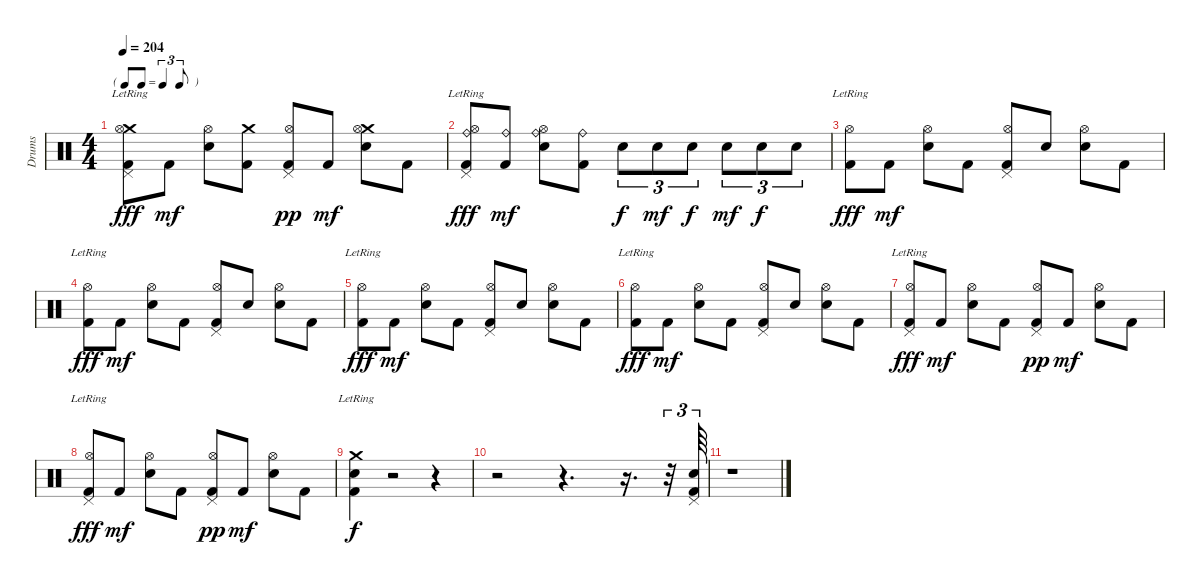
\track ("Drums" "Drums") {instrument percussion}
\staff {score}
\articulation defaults
\ts (4 4)
\tf triplet8th
\tempo 204
\clef neutral
\ks c
("Crash medium (hit)" "Pedal Hi-Hat (hit)" "Hi-Hat (open)" "Kick (hit) 2"{lr}).8{dy fff} "Kick (hit) 2".8{dy mf} ("Hi-Hat (open)" "Electric Snare (hit)").8 ("Crash medium (hit)" "Kick (hit) 2").8 ("Pedal Hi-Hat (hit)" "Hi-Hat (open)" "Kick (hit) 2").8{dy pp} "Kick (hit) 2".8{dy mf} ("Crash medium (hit)" "Hi-Hat (open)" "Electric Snare (hit)").8 "Kick (hit) 2".8 |
("Ride (bell)" "Pedal Hi-Hat (hit)" "Hi-Hat (open)" "Kick (hit) 2"{lr}).8{dy fff} ("Ride (bell)" "Kick (hit) 2").8{dy mf} ("Ride (bell)" "Hi-Hat (open)" "Electric Snare (hit)").8 ("Ride (bell)" "Kick (hit) 2").8 "Electric Snare (hit)".8{tu (3 2) dy f} "Electric Snare (hit)".8{tu (3 2) dy mf} "Electric Snare (hit)".8{tu (3 2) dy f} "Electric Snare (hit)".8{tu (3 2) dy mf} "Electric Snare (hit)".8{tu (3 2) dy f} "Electric Snare (hit)".8{tu (3 2)} |
("Hi-Hat (open)" "Kick (hit) 2"{lr}).8{dy fff} "Kick (hit) 2".8{dy mf} ("Hi-Hat (open)" "Electric Snare (hit)").8 "Kick (hit) 2".8 ("Pedal Hi-Hat (hit)" "Hi-Hat (open)" "Kick (hit) 2").8 "Electric Snare (hit)".8 ("Hi-Hat (open)" "Electric Snare (hit)").8 "Kick (hit) 2".8 |
("Hi-Hat (open)" "Kick (hit) 2"{lr}).8{dy fff} "Kick (hit) 2".8{dy mf} ("Hi-Hat (open)" "Electric Snare (hit)").8 "Kick (hit) 2".8 ("Pedal Hi-Hat (hit)" "Hi-Hat (open)" "Kick (hit) 2").8 "Electric Snare (hit)".8 ("Hi-Hat (open)" "Electric Snare (hit)").8 "Kick (hit) 2".8 |
("Hi-Hat (open)" "Kick (hit) 2"{lr}).8{dy fff} "Kick (hit) 2".8{dy mf} ("Hi-Hat (open)" "Electric Snare (hit)").8 "Kick (hit) 2".8 ("Pedal Hi-Hat (hit)" "Hi-Hat (open)" "Kick (hit) 2").8 "Electric Snare (hit)".8 ("Hi-Hat (open)" "Electric Snare (hit)").8 "Kick (hit) 2".8 |
("Hi-Hat (open)" "Kick (hit) 2"{lr}).8{dy fff} "Kick (hit) 2".8{dy mf} ("Hi-Hat (open)" "Electric Snare (hit)").8 "Kick (hit) 2".8 ("Pedal Hi-Hat (hit)" "Hi-Hat (open)" "Kick (hit) 2").8 "Electric Snare (hit)".8 ("Hi-Hat (open)" "Electric Snare (hit)").8 "Kick (hit) 2".8 |
("Pedal Hi-Hat (hit)" "Hi-Hat (open)" "Kick (hit) 2"{lr}).8{dy fff} "Kick (hit) 2".8{dy mf} ("Hi-Hat (open)" "Electric Snare (hit)").8 "Kick (hit) 2".8 ("Pedal Hi-Hat (hit)" "Hi-Hat (open)" "Kick (hit) 2").8{dy pp} "Kick (hit) 2".8{dy mf} ("Hi-Hat (open)" "Electric Snare (hit)").8 "Kick (hit) 2".8 |
("Pedal Hi-Hat (hit)" "Hi-Hat (open)" "Kick (hit) 2"{lr}).8{dy fff} "Kick (hit) 2".8{dy mf} ("Hi-Hat (open)" "Electric Snare (hit)").8 "Kick (hit) 2".8 ("Pedal Hi-Hat (hit)" "Hi-Hat (open)" "Kick (hit) 2").8{dy pp} "Kick (hit) 2".8{dy mf} ("Hi-Hat (open)" "Electric Snare (hit)").8 "Kick (hit) 2".8 |
("Crash medium (hit)"{lr} "Kick (hit) 2"{lr} "Electric Snare (hit)"{lr}).4{dy f} r.2 r.4 |
r.2 r.4{d} r.16{d} r.32{tu (3 2)} ("Pedal Hi-Hat (hit)" "Kick (hit) 2" "Electric Snare (hit)").64{tu (3 2)} |
r.1
